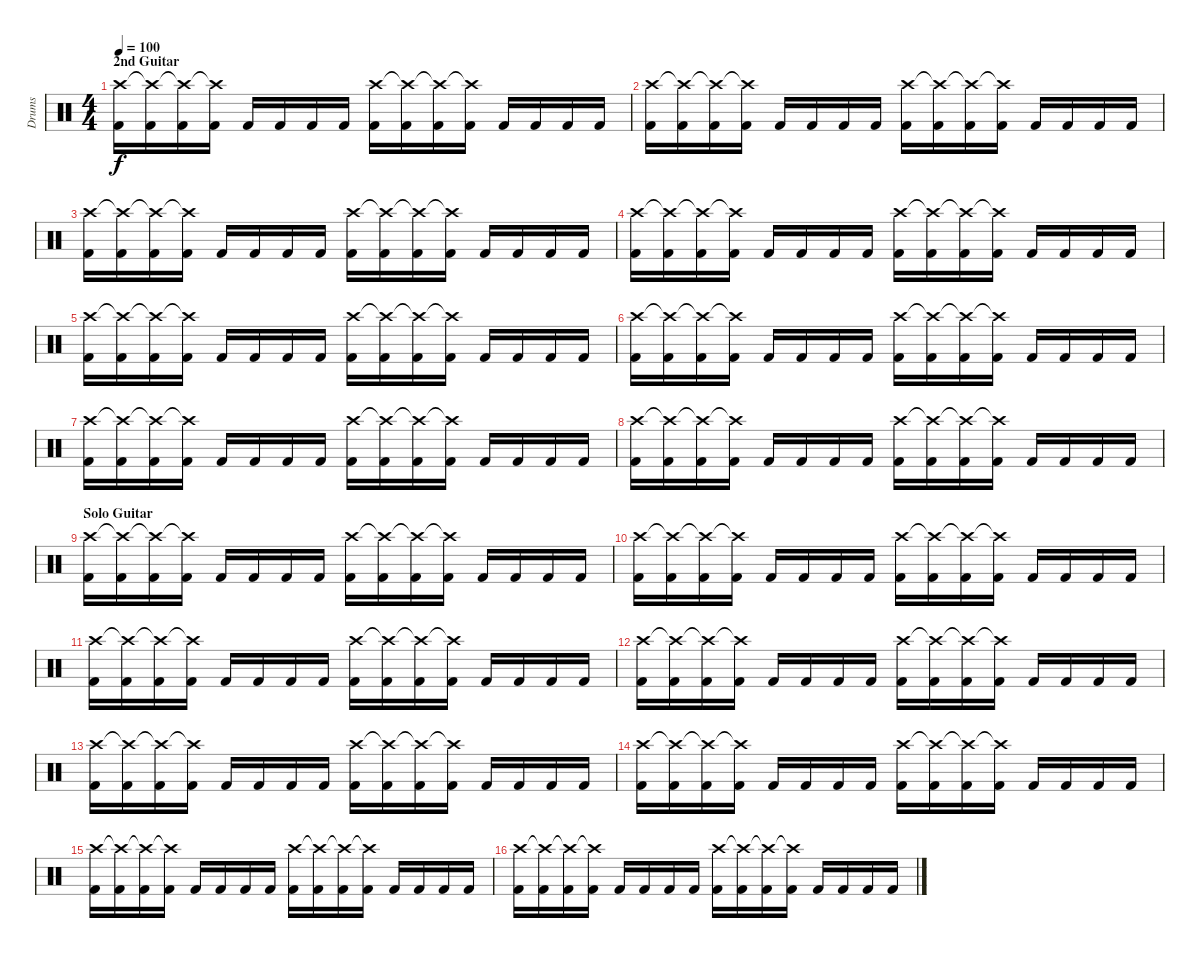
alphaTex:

\track ("Drums" "Drums") {instrument percussion}
\staff {score}
\articulation defaults
\ts (4 4)
\section ("" "2nd Guitar")
\tempo 100
\clef neutral
\ks c
("Crash high (hit)" "Kick (hit) 2").16{dy f} ("Crash high (hit)"{t} "Kick (hit) 2").16 ("Crash high (hit)"{t} "Kick (hit) 2").16 ("Crash high (hit)"{t} "Kick (hit) 2").16 "Kick (hit) 2".16 "Kick (hit) 2".16 "Kick (hit) 2".16 "Kick (hit) 2".16 ("Crash high (hit)" "Kick (hit) 2").16 ("Crash high (hit)"{t} "Kick (hit) 2").16 ("Crash high (hit)"{t} "Kick (hit) 2").16 ("Crash high (hit)"{t} "Kick (hit) 2").16 "Kick (hit) 2".16 "Kick (hit) 2".16 "Kick (hit) 2".16 "Kick (hit) 2".16 |
("Crash high (hit)" "Kick (hit) 2").16 ("Crash high (hit)"{t} "Kick (hit) 2").16 ("Crash high (hit)"{t} "Kick (hit) 2").16 ("Crash high (hit)"{t} "Kick (hit) 2").16 "Kick (hit) 2".16 "Kick (hit) 2".16 "Kick (hit) 2".16 "Kick (hit) 2".16 ("Crash high (hit)" "Kick (hit) 2").16 ("Crash high (hit)"{t} "Kick (hit) 2").16 ("Crash high (hit)"{t} "Kick (hit) 2").16 ("Crash high (hit)"{t} "Kick (hit) 2").16 "Kick (hit) 2".16 "Kick (hit) 2".16 "Kick (hit) 2".16 "Kick (hit) 2".16 |
("Crash high (hit)" "Kick (hit) 2").16 ("Crash high (hit)"{t} "Kick (hit) 2").16 ("Crash high (hit)"{t} "Kick (hit) 2").16 ("Crash high (hit)"{t} "Kick (hit) 2").16 "Kick (hit) 2".16 "Kick (hit) 2".16 "Kick (hit) 2".16 "Kick (hit) 2".16 ("Crash high (hit)" "Kick (hit) 2").16 ("Crash high (hit)"{t} "Kick (hit) 2").16 ("Crash high (hit)"{t} "Kick (hit) 2").16 ("Crash high (hit)"{t} "Kick (hit) 2").16 "Kick (hit) 2".16 "Kick (hit) 2".16 "Kick (hit) 2".16 "Kick (hit) 2".16 |
("Crash high (hit)" "Kick (hit) 2").16 ("Crash high (hit)"{t} "Kick (hit) 2").16 ("Crash high (hit)"{t} "Kick (hit) 2").16 ("Crash high (hit)"{t} "Kick (hit) 2").16 "Kick (hit) 2".16 "Kick (hit) 2".16 "Kick (hit) 2".16 "Kick (hit) 2".16 ("Crash high (hit)" "Kick (hit) 2").16 ("Crash high (hit)"{t} "Kick (hit) 2").16 ("Crash high (hit)"{t} "Kick (hit) 2").16 ("Crash high (hit)"{t} "Kick (hit) 2").16 "Kick (hit) 2".16 "Kick (hit) 2".16 "Kick (hit) 2".16 "Kick (hit) 2".16 |
("Crash high (hit)" "Kick (hit) 2").16 ("Crash high (hit)"{t} "Kick (hit) 2").16 ("Crash high (hit)"{t} "Kick (hit) 2").16 ("Crash high (hit)"{t} "Kick (hit) 2").16 "Kick (hit) 2".16 "Kick (hit) 2".16 "Kick (hit) 2".16 "Kick (hit) 2".16 ("Crash high (hit)" "Kick (hit) 2").16 ("Crash high (hit)"{t} "Kick (hit) 2").16 ("Crash high (hit)"{t} "Kick (hit) 2").16 ("Crash high (hit)"{t} "Kick (hit) 2").16 "Kick (hit) 2".16 "Kick (hit) 2".16 "Kick (hit) 2".16 "Kick (hit) 2".16 |
("Crash high (hit)" "Kick (hit) 2").16 ("Crash high (hit)"{t} "Kick (hit) 2").16 ("Crash high (hit)"{t} "Kick (hit) 2").16 ("Crash high (hit)"{t} "Kick (hit) 2").16 "Kick (hit) 2".16 "Kick (hit) 2".16 "Kick (hit) 2".16 "Kick (hit) 2".16 ("Crash high (hit)" "Kick (hit) 2").16 ("Crash high (hit)"{t} "Kick (hit) 2").16 ("Crash high (hit)"{t} "Kick (hit) 2").16 ("Crash high (hit)"{t} "Kick (hit) 2").16 "Kick (hit) 2".16 "Kick (hit) 2".16 "Kick (hit) 2".16 "Kick (hit) 2".16 |
("Crash high (hit)" "Kick (hit) 2").16 ("Crash high (hit)"{t} "Kick (hit) 2").16 ("Crash high (hit)"{t} "Kick (hit) 2").16 ("Crash high (hit)"{t} "Kick (hit) 2").16 "Kick (hit) 2".16 "Kick (hit) 2".16 "Kick (hit) 2".16 "Kick (hit) 2".16 ("Crash high (hit)" "Kick (hit) 2").16 ("Crash high (hit)"{t} "Kick (hit) 2").16 ("Crash high (hit)"{t} "Kick (hit) 2").16 ("Crash high (hit)"{t} "Kick (hit) 2").16 "Kick (hit) 2".16 "Kick (hit) 2".16 "Kick (hit) 2".16 "Kick (hit) 2".16 |
("Crash high (hit)" "Kick (hit) 2").16 ("Crash high (hit)"{t} "Kick (hit) 2").16 ("Crash high (hit)"{t} "Kick (hit) 2").16 ("Crash high (hit)"{t} "Kick (hit) 2").16 "Kick (hit) 2".16 "Kick (hit) 2".16 "Kick (hit) 2".16 "Kick (hit) 2".16 ("Crash high (hit)" "Kick (hit) 2").16 ("Crash high (hit)"{t} "Kick (hit) 2").16 ("Crash high (hit)"{t} "Kick (hit) 2").16 ("Crash high (hit)"{t} "Kick (hit) 2").16 "Kick (hit) 2".16 "Kick (hit) 2".16 "Kick (hit) 2".16 "Kick (hit) 2".16 |
\section ("" "Solo Guitar")
("Crash high (hit)" "Kick (hit) 2").16 ("Crash high (hit)"{t} "Kick (hit) 2").16 ("Crash high (hit)"{t} "Kick (hit) 2").16 ("Crash high (hit)"{t} "Kick (hit) 2").16 "Kick (hit) 2".16 "Kick (hit) 2".16 "Kick (hit) 2".16 "Kick (hit) 2".16 ("Crash high (hit)" "Kick (hit) 2").16 ("Crash high (hit)"{t} "Kick (hit) 2").16 ("Crash high (hit)"{t} "Kick (hit) 2").16 ("Crash high (hit)"{t} "Kick (hit) 2").16 "Kick (hit) 2".16 "Kick (hit) 2".16 "Kick (hit) 2".16 "Kick (hit) 2".16 |
("Crash high (hit)" "Kick (hit) 2").16 ("Crash high (hit)"{t} "Kick (hit) 2").16 ("Crash high (hit)"{t} "Kick (hit) 2").16 ("Crash high (hit)"{t} "Kick (hit) 2").16 "Kick (hit) 2".16 "Kick (hit) 2".16 "Kick (hit) 2".16 "Kick (hit) 2".16 ("Crash high (hit)" "Kick (hit) 2").16 ("Crash high (hit)"{t} "Kick (hit) 2").16 ("Crash high (hit)"{t} "Kick (hit) 2").16 ("Crash high (hit)"{t} "Kick (hit) 2").16 "Kick (hit) 2".16 "Kick (hit) 2".16 "Kick (hit) 2".16 "Kick (hit) 2".16 |
("Crash high (hit)" "Kick (hit) 2").16 ("Crash high (hit)"{t} "Kick (hit) 2").16 ("Crash high (hit)"{t} "Kick (hit) 2").16 ("Crash high (hit)"{t} "Kick (hit) 2").16 "Kick (hit) 2".16 "Kick (hit) 2".16 "Kick (hit) 2".16 "Kick (hit) 2".16 ("Crash high (hit)" "Kick (hit) 2").16 ("Crash high (hit)"{t} "Kick (hit) 2").16 ("Crash high (hit)"{t} "Kick (hit) 2").16 ("Crash high (hit)"{t} "Kick (hit) 2").16 "Kick (hit) 2".16 "Kick (hit) 2".16 "Kick (hit) 2".16 "Kick (hit) 2".16 |
("Crash high (hit)" "Kick (hit) 2").16 ("Crash high (hit)"{t} "Kick (hit) 2").16 ("Crash high (hit)"{t} "Kick (hit) 2").16 ("Crash high (hit)"{t} "Kick (hit) 2").16 "Kick (hit) 2".16 "Kick (hit) 2".16 "Kick (hit) 2".16 "Kick (hit) 2".16 ("Crash high (hit)" "Kick (hit) 2").16 ("Crash high (hit)"{t} "Kick (hit) 2").16 ("Crash high (hit)"{t} "Kick (hit) 2").16 ("Crash high (hit)"{t} "Kick (hit) 2").16 "Kick (hit) 2".16 "Kick (hit) 2".16 "Kick (hit) 2".16 "Kick (hit) 2".16 |
("Crash high (hit)" "Kick (hit) 2").16 ("Crash high (hit)"{t} "Kick (hit) 2").16 ("Crash high (hit)"{t} "Kick (hit) 2").16 ("Crash high (hit)"{t} "Kick (hit) 2").16 "Kick (hit) 2".16 "Kick (hit) 2".16 "Kick (hit) 2".16 "Kick (hit) 2".16 ("Crash high (hit)" "Kick (hit) 2").16 ("Crash high (hit)"{t} "Kick (hit) 2").16 ("Crash high (hit)"{t} "Kick (hit) 2").16 ("Crash high (hit)"{t} "Kick (hit) 2").16 "Kick (hit) 2".16 "Kick (hit) 2".16 "Kick (hit) 2".16 "Kick (hit) 2".16 |
("Crash high (hit)" "Kick (hit) 2").16 ("Crash high (hit)"{t} "Kick (hit) 2").16 ("Crash high (hit)"{t} "Kick (hit) 2").16 ("Crash high (hit)"{t} "Kick (hit) 2").16 "Kick (hit) 2".16 "Kick (hit) 2".16 "Kick (hit) 2".16 "Kick (hit) 2".16 ("Crash high (hit)" "Kick (hit) 2").16 ("Crash high (hit)"{t} "Kick (hit) 2").16 ("Crash high (hit)"{t} "Kick (hit) 2").16 ("Crash high (hit)"{t} "Kick (hit) 2").16 "Kick (hit) 2".16 "Kick (hit) 2".16 "Kick (hit) 2".16 "Kick (hit) 2".16 |
("Crash high (hit)" "Kick (hit) 2").16 ("Crash high (hit)"{t} "Kick (hit) 2").16 ("Crash high (hit)"{t} "Kick (hit) 2").16 ("Crash high (hit)"{t} "Kick (hit) 2").16 "Kick (hit) 2".16 "Kick (hit) 2".16 "Kick (hit) 2".16 "Kick (hit) 2".16 ("Crash high (hit)" "Kick (hit) 2").16 ("Crash high (hit)"{t} "Kick (hit) 2").16 ("Crash high (hit)"{t} "Kick (hit) 2").16 ("Crash high (hit)"{t} "Kick (hit) 2").16 "Kick (hit) 2".16 "Kick (hit) 2".16 "Kick (hit) 2".16 "Kick (hit) 2".16 |
("Crash high (hit)" "Kick (hit) 2").16 ("Crash high (hit)"{t} "Kick (hit) 2").16 ("Crash high (hit)"{t} "Kick (hit) 2").16 ("Crash high (hit)"{t} "Kick (hit) 2").16 "Kick (hit) 2".16 "Kick (hit) 2".16 "Kick (hit) 2".16 "Kick (hit) 2".16 ("Crash high (hit)" "Kick (hit) 2").16 ("Crash high (hit)"{t} "Kick (hit) 2").16 ("Crash high (hit)"{t} "Kick (hit) 2").16 ("Crash high (hit)"{t} "Kick (hit) 2").16 "Kick (hit) 2".16 "Kick (hit) 2".16 "Kick (hit) 2".16 "Kick (hit) 2".16
